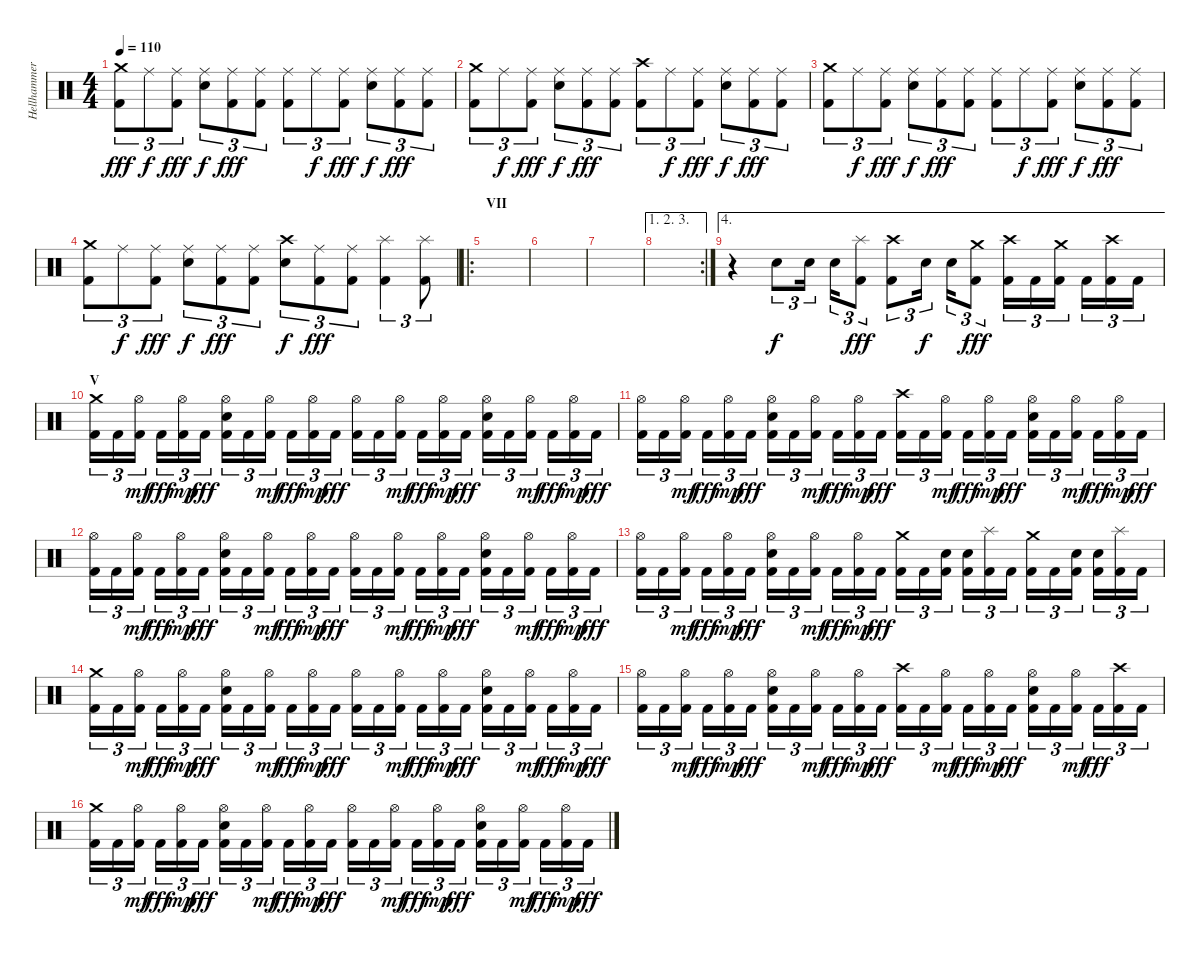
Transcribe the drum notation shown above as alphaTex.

\track ("Hellhammer" "Hellhammer") {instrument percussion}
\staff {score}
\articulation defaults
\ts (4 4)
\tempo 110
\clef neutral
\ks c
("Kick (hit) 2" "Crash medium (hit)").8{tu (3 2) dy fff} "Ride (middle)".8{tu (3 2) dy f} ("Kick (hit) 2" "Ride (middle)").8{tu (3 2) dy fff} ("Electric Snare (hit)" "Ride (middle)").8{tu (3 2) dy f} ("Kick (hit) 2" "Ride (middle)").8{tu (3 2) dy fff} ("Kick (hit) 2" "Ride (middle)").8{tu (3 2)} ("Kick (hit) 2" "Ride (middle)").8{tu (3 2)} "Ride (middle)".8{tu (3 2) dy f} ("Kick (hit) 2" "Ride (middle)").8{tu (3 2) dy fff} ("Electric Snare (hit)" "Ride (middle)").8{tu (3 2) dy f} ("Kick (hit) 2" "Ride (middle)").8{tu (3 2) dy fff} ("Kick (hit) 2" "Ride (middle)").8{tu (3 2)} |
("Kick (hit) 2" "Crash medium (hit)").8{tu (3 2)} "Ride (middle)".8{tu (3 2) dy f} ("Kick (hit) 2" "Ride (middle)").8{tu (3 2) dy fff} ("Electric Snare (hit)" "Ride (middle)").8{tu (3 2) dy f} ("Kick (hit) 2" "Ride (middle)").8{tu (3 2) dy fff} ("Kick (hit) 2" "Ride (middle)").8{tu (3 2)} ("Kick (hit) 2" "Crash high (hit)").8{tu (3 2)} "Ride (middle)".8{tu (3 2) dy f} ("Kick (hit) 2" "Ride (middle)").8{tu (3 2) dy fff} ("Electric Snare (hit)" "Ride (middle)").8{tu (3 2) dy f} ("Kick (hit) 2" "Ride (middle)").8{tu (3 2) dy fff} ("Kick (hit) 2" "Ride (middle)").8{tu (3 2)} |
("Kick (hit) 2" "Crash medium (hit)").8{tu (3 2)} "Ride (middle)".8{tu (3 2) dy f} ("Kick (hit) 2" "Ride (middle)").8{tu (3 2) dy fff} ("Electric Snare (hit)" "Ride (middle)").8{tu (3 2) dy f} ("Kick (hit) 2" "Ride (middle)").8{tu (3 2) dy fff} ("Kick (hit) 2" "Ride (middle)").8{tu (3 2)} ("Kick (hit) 2" "Ride (middle)").8{tu (3 2)} "Ride (middle)".8{tu (3 2) dy f} ("Kick (hit) 2" "Ride (middle)").8{tu (3 2) dy fff} ("Electric Snare (hit)" "Ride (middle)").8{tu (3 2) dy f} ("Kick (hit) 2" "Ride (middle)").8{tu (3 2) dy fff} ("Kick (hit) 2" "Ride (middle)").8{tu (3 2)} |
("Kick (hit) 2" "Crash medium (hit)").8{tu (3 2)} "Ride (middle)".8{tu (3 2) dy f} ("Kick (hit) 2" "Ride (middle)").8{tu (3 2) dy fff} ("Electric Snare (hit)" "Ride (middle)").8{tu (3 2) dy f} ("Kick (hit) 2" "Ride (middle)").8{tu (3 2) dy fff} ("Kick (hit) 2" "Ride (middle)").8{tu (3 2)} ("Electric Snare (hit)" "Crash high (hit)").8{tu (3 2) dy f} ("Kick (hit) 2" "Ride (middle)").8{tu (3 2) dy fff} ("Kick (hit) 2" "Ride (middle)").8{tu (3 2)} ("Kick (hit) 2" "Splash (hit)").4{tu (3 2)} ("Kick (hit) 2" "Splash (hit)").8{tu (3 2)} |
\ro
\section ("" "VII")
|
|
|
\ae (1 2 3)
\rc 2
|
\ae 4
r.4 "Electric Snare (hit)".8{tu (3 2) dy f} "Electric Snare (hit)".16{tu (3 2)} "Electric Snare (hit)".16{tu (3 2)} ("Kick (hit) 2" "Splash (hit)").8{tu (3 2) dy fff} ("Kick (hit) 2" "Crash high (hit)").8{tu (3 2)} "Electric Snare (hit)".16{tu (3 2) dy f} "Electric Snare (hit)".16{tu (3 2)} ("Kick (hit) 2" "Crash medium (hit)").8{tu (3 2) dy fff} ("Kick (hit) 2" "Crash high (hit)").16{tu (3 2)} "Kick (hit) 2".16{tu (3 2)} ("Kick (hit) 2" "Crash medium (hit)").16{tu (3 2)} "Kick (hit) 2".16{tu (3 2)} ("Kick (hit) 2" "Crash high (hit)").16{tu (3 2)} "Kick (hit) 2".16{tu (3 2)} |
\section ("" "V")
("Kick (hit) 2" "Crash medium (hit)").16{tu (3 2)} "Kick (hit) 2".16{tu (3 2)} ("Kick (hit) 2" "Hi-Hat (open)").16{tu (3 2) dy mf} "Kick (hit) 2".16{tu (3 2) dy fff} ("Kick (hit) 2" "Hi-Hat (open)").16{tu (3 2) dy mp} "Kick (hit) 2".16{tu (3 2) dy fff} ("Kick (hit) 2" "Electric Snare (hit)" "Hi-Hat (open)").16{tu (3 2)} "Kick (hit) 2".16{tu (3 2)} ("Kick (hit) 2" "Hi-Hat (open)").16{tu (3 2) dy mf} "Kick (hit) 2".16{tu (3 2) dy fff} ("Kick (hit) 2" "Hi-Hat (open)").16{tu (3 2) dy mp} "Kick (hit) 2".16{tu (3 2) dy fff} ("Kick (hit) 2" "Hi-Hat (open)").16{tu (3 2)} "Kick (hit) 2".16{tu (3 2)} ("Kick (hit) 2" "Hi-Hat (open)").16{tu (3 2) dy mf} "Kick (hit) 2".16{tu (3 2) dy fff} ("Kick (hit) 2" "Hi-Hat (open)").16{tu (3 2) dy mp} "Kick (hit) 2".16{tu (3 2) dy fff} ("Kick (hit) 2" "Electric Snare (hit)" "Hi-Hat (open)").16{tu (3 2)} "Kick (hit) 2".16{tu (3 2)} ("Kick (hit) 2" "Hi-Hat (open)").16{tu (3 2) dy mf} "Kick (hit) 2".16{tu (3 2) dy fff} ("Kick (hit) 2" "Hi-Hat (open)").16{tu (3 2) dy mp} "Kick (hit) 2".16{tu (3 2) dy fff} |
("Kick (hit) 2" "Hi-Hat (open)").16{tu (3 2)} "Kick (hit) 2".16{tu (3 2)} ("Kick (hit) 2" "Hi-Hat (open)").16{tu (3 2) dy mf} "Kick (hit) 2".16{tu (3 2) dy fff} ("Kick (hit) 2" "Hi-Hat (open)").16{tu (3 2) dy mp} "Kick (hit) 2".16{tu (3 2) dy fff} ("Kick (hit) 2" "Electric Snare (hit)" "Hi-Hat (open)").16{tu (3 2)} "Kick (hit) 2".16{tu (3 2)} ("Kick (hit) 2" "Hi-Hat (open)").16{tu (3 2) dy mf} "Kick (hit) 2".16{tu (3 2) dy fff} ("Kick (hit) 2" "Hi-Hat (open)").16{tu (3 2) dy mp} "Kick (hit) 2".16{tu (3 2) dy fff} ("Kick (hit) 2" "Crash high (hit)").16{tu (3 2)} "Kick (hit) 2".16{tu (3 2)} ("Kick (hit) 2" "Hi-Hat (open)").16{tu (3 2) dy mf} "Kick (hit) 2".16{tu (3 2) dy fff} ("Kick (hit) 2" "Hi-Hat (open)").16{tu (3 2) dy mp} "Kick (hit) 2".16{tu (3 2) dy fff} ("Kick (hit) 2" "Electric Snare (hit)" "Hi-Hat (open)").16{tu (3 2)} "Kick (hit) 2".16{tu (3 2)} ("Kick (hit) 2" "Hi-Hat (open)").16{tu (3 2) dy mf} "Kick (hit) 2".16{tu (3 2) dy fff} ("Kick (hit) 2" "Hi-Hat (open)").16{tu (3 2) dy mp} "Kick (hit) 2".16{tu (3 2) dy fff} |
("Kick (hit) 2" "Hi-Hat (open)").16{tu (3 2)} "Kick (hit) 2".16{tu (3 2)} ("Kick (hit) 2" "Hi-Hat (open)").16{tu (3 2) dy mf} "Kick (hit) 2".16{tu (3 2) dy fff} ("Kick (hit) 2" "Hi-Hat (open)").16{tu (3 2) dy mp} "Kick (hit) 2".16{tu (3 2) dy fff} ("Kick (hit) 2" "Electric Snare (hit)" "Hi-Hat (open)").16{tu (3 2)} "Kick (hit) 2".16{tu (3 2)} ("Kick (hit) 2" "Hi-Hat (open)").16{tu (3 2) dy mf} "Kick (hit) 2".16{tu (3 2) dy fff} ("Kick (hit) 2" "Hi-Hat (open)").16{tu (3 2) dy mp} "Kick (hit) 2".16{tu (3 2) dy fff} ("Kick (hit) 2" "Hi-Hat (open)").16{tu (3 2)} "Kick (hit) 2".16{tu (3 2)} ("Kick (hit) 2" "Hi-Hat (open)").16{tu (3 2) dy mf} "Kick (hit) 2".16{tu (3 2) dy fff} ("Kick (hit) 2" "Hi-Hat (open)").16{tu (3 2) dy mp} "Kick (hit) 2".16{tu (3 2) dy fff} ("Kick (hit) 2" "Electric Snare (hit)" "Hi-Hat (open)").16{tu (3 2)} "Kick (hit) 2".16{tu (3 2)} ("Kick (hit) 2" "Hi-Hat (open)").16{tu (3 2) dy mf} "Kick (hit) 2".16{tu (3 2) dy fff} ("Kick (hit) 2" "Hi-Hat (open)").16{tu (3 2) dy mp} "Kick (hit) 2".16{tu (3 2) dy fff} |
("Kick (hit) 2" "Hi-Hat (open)").16{tu (3 2)} "Kick (hit) 2".16{tu (3 2)} ("Kick (hit) 2" "Hi-Hat (open)").16{tu (3 2) dy mf} "Kick (hit) 2".16{tu (3 2) dy fff} ("Kick (hit) 2" "Hi-Hat (open)").16{tu (3 2) dy mp} "Kick (hit) 2".16{tu (3 2) dy fff} ("Kick (hit) 2" "Electric Snare (hit)" "Hi-Hat (open)").16{tu (3 2)} "Kick (hit) 2".16{tu (3 2)} ("Kick (hit) 2" "Hi-Hat (open)").16{tu (3 2) dy mf} "Kick (hit) 2".16{tu (3 2) dy fff} ("Kick (hit) 2" "Hi-Hat (open)").16{tu (3 2) dy mp} "Kick (hit) 2".16{tu (3 2) dy fff} ("Kick (hit) 2" "Crash medium (hit)").16{tu (3 2)} "Kick (hit) 2".16{tu (3 2)} ("Kick (hit) 2" "Electric Snare (hit)").16{tu (3 2)} ("Kick (hit) 2" "Electric Snare (hit)").16{tu (3 2)} ("Kick (hit) 2" "Splash (hit)").16{tu (3 2)} "Kick (hit) 2".16{tu (3 2)} ("Kick (hit) 2" "Crash medium (hit)").16{tu (3 2)} "Kick (hit) 2".16{tu (3 2)} ("Kick (hit) 2" "Electric Snare (hit)").16{tu (3 2)} ("Kick (hit) 2" "Electric Snare (hit)").16{tu (3 2)} ("Kick (hit) 2" "Splash (hit)").16{tu (3 2)} "Kick (hit) 2".16{tu (3 2)} |
("Kick (hit) 2" "Crash medium (hit)").16{tu (3 2)} "Kick (hit) 2".16{tu (3 2)} ("Kick (hit) 2" "Hi-Hat (open)").16{tu (3 2) dy mf} "Kick (hit) 2".16{tu (3 2) dy fff} ("Kick (hit) 2" "Hi-Hat (open)").16{tu (3 2) dy mp} "Kick (hit) 2".16{tu (3 2) dy fff} ("Kick (hit) 2" "Electric Snare (hit)" "Hi-Hat (open)").16{tu (3 2)} "Kick (hit) 2".16{tu (3 2)} ("Kick (hit) 2" "Hi-Hat (open)").16{tu (3 2) dy mf} "Kick (hit) 2".16{tu (3 2) dy fff} ("Kick (hit) 2" "Hi-Hat (open)").16{tu (3 2) dy mp} "Kick (hit) 2".16{tu (3 2) dy fff} ("Kick (hit) 2" "Hi-Hat (open)").16{tu (3 2)} "Kick (hit) 2".16{tu (3 2)} ("Kick (hit) 2" "Hi-Hat (open)").16{tu (3 2) dy mf} "Kick (hit) 2".16{tu (3 2) dy fff} ("Kick (hit) 2" "Hi-Hat (open)").16{tu (3 2) dy mp} "Kick (hit) 2".16{tu (3 2) dy fff} ("Kick (hit) 2" "Electric Snare (hit)" "Hi-Hat (open)").16{tu (3 2)} "Kick (hit) 2".16{tu (3 2)} ("Kick (hit) 2" "Hi-Hat (open)").16{tu (3 2) dy mf} "Kick (hit) 2".16{tu (3 2) dy fff} ("Kick (hit) 2" "Hi-Hat (open)").16{tu (3 2) dy mp} "Kick (hit) 2".16{tu (3 2) dy fff} |
("Kick (hit) 2" "Hi-Hat (open)").16{tu (3 2)} "Kick (hit) 2".16{tu (3 2)} ("Kick (hit) 2" "Hi-Hat (open)").16{tu (3 2) dy mf} "Kick (hit) 2".16{tu (3 2) dy fff} ("Kick (hit) 2" "Hi-Hat (open)").16{tu (3 2) dy mp} "Kick (hit) 2".16{tu (3 2) dy fff} ("Kick (hit) 2" "Electric Snare (hit)" "Hi-Hat (open)").16{tu (3 2)} "Kick (hit) 2".16{tu (3 2)} ("Kick (hit) 2" "Hi-Hat (open)").16{tu (3 2) dy mf} "Kick (hit) 2".16{tu (3 2) dy fff} ("Kick (hit) 2" "Hi-Hat (open)").16{tu (3 2) dy mp} "Kick (hit) 2".16{tu (3 2) dy fff} ("Kick (hit) 2" "Crash high (hit)").16{tu (3 2)} "Kick (hit) 2".16{tu (3 2)} ("Kick (hit) 2" "Hi-Hat (open)").16{tu (3 2) dy mf} "Kick (hit) 2".16{tu (3 2) dy fff} ("Kick (hit) 2" "Hi-Hat (open)").16{tu (3 2) dy mp} "Kick (hit) 2".16{tu (3 2) dy fff} ("Kick (hit) 2" "Electric Snare (hit)" "Hi-Hat (open)").16{tu (3 2)} "Kick (hit) 2".16{tu (3 2)} ("Kick (hit) 2" "Hi-Hat (open)").16{tu (3 2) dy mf} "Kick (hit) 2".16{tu (3 2) dy fff} ("Kick (hit) 2" "Crash high (hit)").16{tu (3 2)} "Kick (hit) 2".16{tu (3 2)} |
("Kick (hit) 2" "Crash medium (hit)").16{tu (3 2)} "Kick (hit) 2".16{tu (3 2)} ("Kick (hit) 2" "Hi-Hat (open)").16{tu (3 2) dy mf} "Kick (hit) 2".16{tu (3 2) dy fff} ("Kick (hit) 2" "Hi-Hat (open)").16{tu (3 2) dy mp} "Kick (hit) 2".16{tu (3 2) dy fff} ("Kick (hit) 2" "Electric Snare (hit)" "Hi-Hat (open)").16{tu (3 2)} "Kick (hit) 2".16{tu (3 2)} ("Kick (hit) 2" "Hi-Hat (open)").16{tu (3 2) dy mf} "Kick (hit) 2".16{tu (3 2) dy fff} ("Kick (hit) 2" "Hi-Hat (open)").16{tu (3 2) dy mp} "Kick (hit) 2".16{tu (3 2) dy fff} ("Kick (hit) 2" "Hi-Hat (open)").16{tu (3 2)} "Kick (hit) 2".16{tu (3 2)} ("Kick (hit) 2" "Hi-Hat (open)").16{tu (3 2) dy mf} "Kick (hit) 2".16{tu (3 2) dy fff} ("Kick (hit) 2" "Hi-Hat (open)").16{tu (3 2) dy mp} "Kick (hit) 2".16{tu (3 2) dy fff} ("Kick (hit) 2" "Electric Snare (hit)" "Hi-Hat (open)").16{tu (3 2)} "Kick (hit) 2".16{tu (3 2)} ("Kick (hit) 2" "Hi-Hat (open)").16{tu (3 2) dy mf} "Kick (hit) 2".16{tu (3 2) dy fff} ("Kick (hit) 2" "Hi-Hat (open)").16{tu (3 2) dy mp} "Kick (hit) 2".16{tu (3 2) dy fff}
